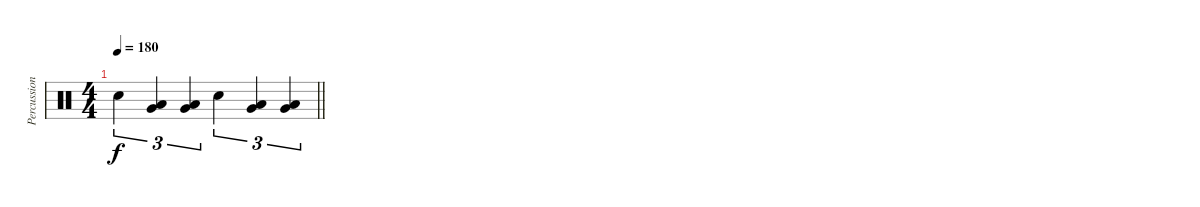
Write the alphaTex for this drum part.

\track ("Percussion" "Percussion") {instrument percussion}
\staff {score}
\articulation defaults
\ts (4 4)
\tempo 180
\clef neutral
\barLineRight lightlight
\ks c "Electric Snare (hit)".4{tu (3 2) dy f}
("Very Low Tom (hit)" "Low Floor Tom (hit)").4{tu (3 2)} ("Very Low Tom (hit)" "Low Floor Tom (hit)").4{tu (3 2)} "Electric Snare (hit)".4{tu (3 2)} ("Very Low Tom (hit)" "Low Floor Tom (hit)").4{tu (3 2)} ("Very Low Tom (hit)" "Low Floor Tom (hit)").4{tu (3 2)}
